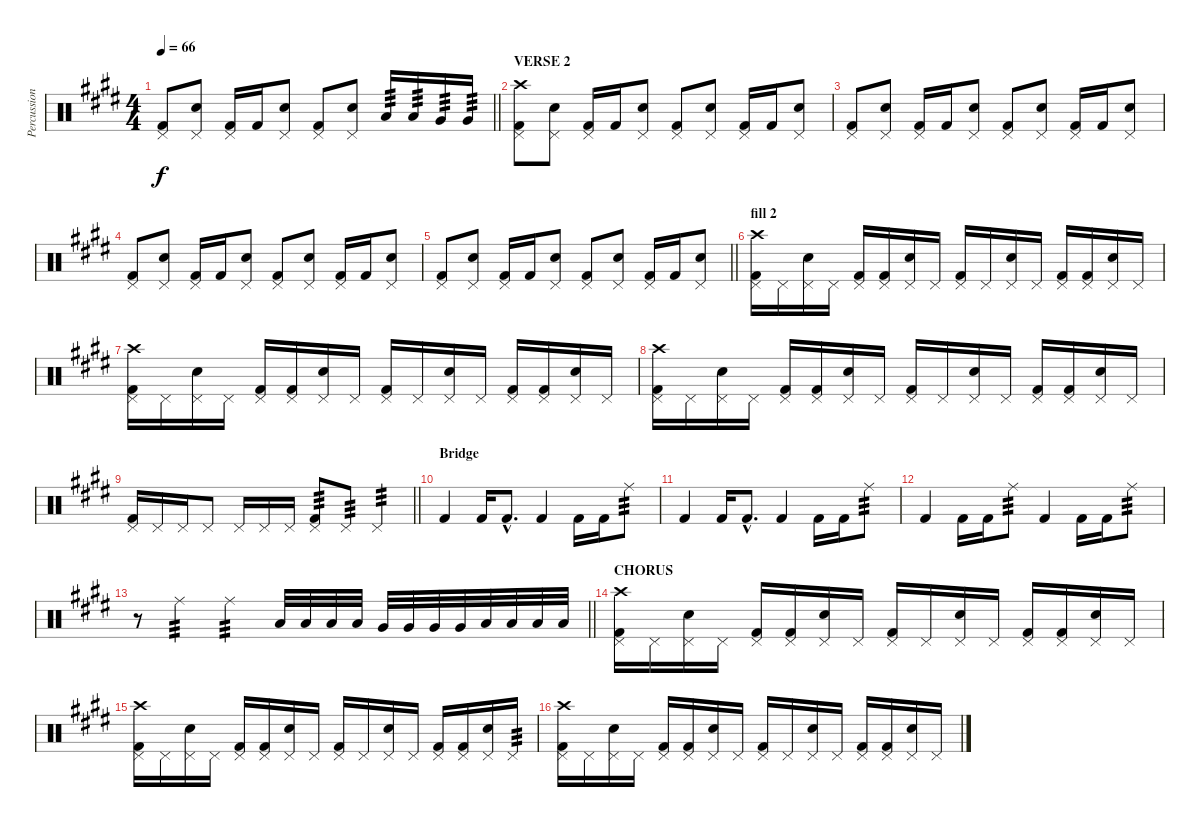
\track ("Percussion" "Percussion") {instrument percussion}
\staff {score}
\articulation defaults
\ts (4 4)
\tempo 66
\clef neutral
\barLineRight lightlight
\ks e
("Pedal Hi-Hat (hit)" "Kick (hit) 2").8{dy f} ("Pedal Hi-Hat (hit)" "Electric Snare (hit)").8 ("Pedal Hi-Hat (hit)" "Kick (hit) 2").16 "Kick (hit) 2".16 ("Pedal Hi-Hat (hit)" "Electric Snare (hit)").8 ("Pedal Hi-Hat (hit)" "Kick (hit) 2").8 ("Pedal Hi-Hat (hit)" "Electric Snare (hit)").8 "Low Tom (hit)".16{tp 3} "Low Tom (hit)".16{tp 3} "Very Low Tom (hit)".16{tp 3} "Very Low Tom (hit)".16{tp 3} |
\section ("" "VERSE 2")
("Crash high (hit)" "Pedal Hi-Hat (hit)" "Kick (hit) 2").8 ("Pedal Hi-Hat (hit)" "Electric Snare (hit)").8 ("Pedal Hi-Hat (hit)" "Kick (hit) 2").16 "Kick (hit) 2".16 ("Pedal Hi-Hat (hit)" "Electric Snare (hit)").8 ("Pedal Hi-Hat (hit)" "Kick (hit) 2").8 ("Pedal Hi-Hat (hit)" "Electric Snare (hit)").8 ("Pedal Hi-Hat (hit)" "Kick (hit) 2").16 "Kick (hit) 2".16 ("Pedal Hi-Hat (hit)" "Electric Snare (hit)").8 |
("Pedal Hi-Hat (hit)" "Kick (hit) 2").8 ("Pedal Hi-Hat (hit)" "Electric Snare (hit)").8 ("Pedal Hi-Hat (hit)" "Kick (hit) 2").16 "Kick (hit) 2".16 ("Pedal Hi-Hat (hit)" "Electric Snare (hit)").8 ("Pedal Hi-Hat (hit)" "Kick (hit) 2").8 ("Pedal Hi-Hat (hit)" "Electric Snare (hit)").8 ("Pedal Hi-Hat (hit)" "Kick (hit) 2").16 "Kick (hit) 2".16 ("Pedal Hi-Hat (hit)" "Electric Snare (hit)").8 |
("Pedal Hi-Hat (hit)" "Kick (hit) 2").8 ("Pedal Hi-Hat (hit)" "Electric Snare (hit)").8 ("Pedal Hi-Hat (hit)" "Kick (hit) 2").16 "Kick (hit) 2".16 ("Pedal Hi-Hat (hit)" "Electric Snare (hit)").8 ("Pedal Hi-Hat (hit)" "Kick (hit) 2").8 ("Pedal Hi-Hat (hit)" "Electric Snare (hit)").8 ("Pedal Hi-Hat (hit)" "Kick (hit) 2").16 "Kick (hit) 2".16 ("Pedal Hi-Hat (hit)" "Electric Snare (hit)").8 |
\barLineRight lightlight
("Pedal Hi-Hat (hit)" "Kick (hit) 2").8 ("Pedal Hi-Hat (hit)" "Electric Snare (hit)").8 ("Pedal Hi-Hat (hit)" "Kick (hit) 2").16 "Kick (hit) 2".16 ("Pedal Hi-Hat (hit)" "Electric Snare (hit)").8 ("Pedal Hi-Hat (hit)" "Kick (hit) 2").8 ("Pedal Hi-Hat (hit)" "Electric Snare (hit)").8 ("Pedal Hi-Hat (hit)" "Kick (hit) 2").16 "Kick (hit) 2".16 ("Pedal Hi-Hat (hit)" "Electric Snare (hit)").8 |
\section ("" "fill 2")
("Crash high (hit)" "Pedal Hi-Hat (hit)" "Kick (hit) 2").16 "Pedal Hi-Hat (hit)".16 ("Pedal Hi-Hat (hit)" "Electric Snare (hit)").16 "Pedal Hi-Hat (hit)".16 ("Pedal Hi-Hat (hit)" "Kick (hit) 2").16 ("Pedal Hi-Hat (hit)" "Kick (hit) 2").16 ("Pedal Hi-Hat (hit)" "Electric Snare (hit)").16 "Pedal Hi-Hat (hit)".16 ("Pedal Hi-Hat (hit)" "Kick (hit) 2").16 "Pedal Hi-Hat (hit)".16 ("Pedal Hi-Hat (hit)" "Electric Snare (hit)").16 "Pedal Hi-Hat (hit)".16 ("Pedal Hi-Hat (hit)" "Kick (hit) 2").16 ("Pedal Hi-Hat (hit)" "Kick (hit) 2").16 ("Pedal Hi-Hat (hit)" "Electric Snare (hit)").16 "Pedal Hi-Hat (hit)".16 |
("Crash high (hit)" "Pedal Hi-Hat (hit)" "Kick (hit) 2").16 "Pedal Hi-Hat (hit)".16 ("Pedal Hi-Hat (hit)" "Electric Snare (hit)").16 "Pedal Hi-Hat (hit)".16 ("Pedal Hi-Hat (hit)" "Kick (hit) 2").16 ("Pedal Hi-Hat (hit)" "Kick (hit) 2").16 ("Pedal Hi-Hat (hit)" "Electric Snare (hit)").16 "Pedal Hi-Hat (hit)".16 ("Pedal Hi-Hat (hit)" "Kick (hit) 2").16 "Pedal Hi-Hat (hit)".16 ("Pedal Hi-Hat (hit)" "Electric Snare (hit)").16 "Pedal Hi-Hat (hit)".16 ("Pedal Hi-Hat (hit)" "Kick (hit) 2").16 ("Pedal Hi-Hat (hit)" "Kick (hit) 2").16 ("Pedal Hi-Hat (hit)" "Electric Snare (hit)").16 "Pedal Hi-Hat (hit)".16 |
("Crash high (hit)" "Pedal Hi-Hat (hit)" "Kick (hit) 2").16 "Pedal Hi-Hat (hit)".16 ("Pedal Hi-Hat (hit)" "Electric Snare (hit)").16 "Pedal Hi-Hat (hit)".16 ("Pedal Hi-Hat (hit)" "Kick (hit) 2").16 ("Pedal Hi-Hat (hit)" "Kick (hit) 2").16 ("Pedal Hi-Hat (hit)" "Electric Snare (hit)").16 "Pedal Hi-Hat (hit)".16 ("Pedal Hi-Hat (hit)" "Kick (hit) 2").16 "Pedal Hi-Hat (hit)".16 ("Pedal Hi-Hat (hit)" "Electric Snare (hit)").16 "Pedal Hi-Hat (hit)".16 ("Pedal Hi-Hat (hit)" "Kick (hit) 2").16 ("Pedal Hi-Hat (hit)" "Kick (hit) 2").16 ("Pedal Hi-Hat (hit)" "Electric Snare (hit)").16 "Pedal Hi-Hat (hit)".16 |
\barLineRight lightlight
("Pedal Hi-Hat (hit)" "Kick (hit) 2").16 "Pedal Hi-Hat (hit)".16 "Pedal Hi-Hat (hit)".16 "Pedal Hi-Hat (hit)".8 "Pedal Hi-Hat (hit)".16 "Pedal Hi-Hat (hit)".16 "Pedal Hi-Hat (hit)".16 ("Pedal Hi-Hat (hit)" "Kick (hit) 2").8{tp 3} "Pedal Hi-Hat (hit)".8{tp 3} "Pedal Hi-Hat (hit)".4{tp 3} |
\section ("" "Bridge")
"Kick (hit) 2".4 "Kick (hit) 2".16 "Kick (hit) 2"{hac}.8{d} "Kick (hit) 2".4 "Kick (hit) 2".16 "Kick (hit) 2".16 "Ride (middle)".8{tp 3} |
"Kick (hit) 2".4 "Kick (hit) 2".16 "Kick (hit) 2"{hac}.8{d} "Kick (hit) 2".4 "Kick (hit) 2".16 "Kick (hit) 2".16 "Ride (middle)".8{tp 3} |
"Kick (hit) 2".4 "Kick (hit) 2".16 "Kick (hit) 2".16 "Ride (middle)".8{tp 3} "Kick (hit) 2".4 "Kick (hit) 2".16 "Kick (hit) 2".16 "Ride (middle)".8{tp 3} |
\barLineRight lightlight
r.8 "Ride (middle)".4{tp 3} "Ride (middle)".4{tp 3} "Low Tom (hit)".32 "Low Tom (hit)".32 "Low Tom (hit)".32 "Low Tom (hit)".32 "Very Low Tom (hit)".32 "Very Low Tom (hit)".32 "Very Low Tom (hit)".32 "Very Low Tom (hit)".32 "Low Floor Tom (hit)".32 "Low Floor Tom (hit)".32 "Low Floor Tom (hit)".32 "Low Floor Tom (hit)".32 |
\section ("" "CHORUS")
("Crash high (hit)" "Pedal Hi-Hat (hit)" "Kick (hit) 2").16 "Pedal Hi-Hat (hit)".16 ("Pedal Hi-Hat (hit)" "Electric Snare (hit)").16 "Pedal Hi-Hat (hit)".16 ("Pedal Hi-Hat (hit)" "Kick (hit) 2").16 ("Pedal Hi-Hat (hit)" "Kick (hit) 2").16 ("Pedal Hi-Hat (hit)" "Electric Snare (hit)").16 "Pedal Hi-Hat (hit)".16 ("Pedal Hi-Hat (hit)" "Kick (hit) 2").16 "Pedal Hi-Hat (hit)".16 ("Pedal Hi-Hat (hit)" "Electric Snare (hit)").16 "Pedal Hi-Hat (hit)".16 ("Pedal Hi-Hat (hit)" "Kick (hit) 2").16 ("Pedal Hi-Hat (hit)" "Kick (hit) 2").16 ("Pedal Hi-Hat (hit)" "Electric Snare (hit)").16 "Pedal Hi-Hat (hit)".16 |
("Crash high (hit)" "Pedal Hi-Hat (hit)" "Kick (hit) 2").16 "Pedal Hi-Hat (hit)".16 ("Pedal Hi-Hat (hit)" "Electric Snare (hit)").16 "Pedal Hi-Hat (hit)".16 ("Pedal Hi-Hat (hit)" "Kick (hit) 2").16 ("Pedal Hi-Hat (hit)" "Kick (hit) 2").16 ("Pedal Hi-Hat (hit)" "Electric Snare (hit)").16 "Pedal Hi-Hat (hit)".16 ("Pedal Hi-Hat (hit)" "Kick (hit) 2").16 "Pedal Hi-Hat (hit)".16 ("Pedal Hi-Hat (hit)" "Electric Snare (hit)").16 "Pedal Hi-Hat (hit)".16 ("Pedal Hi-Hat (hit)" "Kick (hit) 2").16 ("Pedal Hi-Hat (hit)" "Kick (hit) 2").16 ("Pedal Hi-Hat (hit)" "Electric Snare (hit)").16 "Pedal Hi-Hat (hit)".16{tp 3} |
("Crash high (hit)" "Pedal Hi-Hat (hit)" "Kick (hit) 2").16 "Pedal Hi-Hat (hit)".16 ("Pedal Hi-Hat (hit)" "Electric Snare (hit)").16 "Pedal Hi-Hat (hit)".16 ("Pedal Hi-Hat (hit)" "Kick (hit) 2").16 ("Pedal Hi-Hat (hit)" "Kick (hit) 2").16 ("Pedal Hi-Hat (hit)" "Electric Snare (hit)").16 "Pedal Hi-Hat (hit)".16 ("Pedal Hi-Hat (hit)" "Kick (hit) 2").16 "Pedal Hi-Hat (hit)".16 ("Pedal Hi-Hat (hit)" "Electric Snare (hit)").16 "Pedal Hi-Hat (hit)".16 ("Pedal Hi-Hat (hit)" "Kick (hit) 2").16 ("Pedal Hi-Hat (hit)" "Kick (hit) 2").16 ("Pedal Hi-Hat (hit)" "Electric Snare (hit)").16 "Pedal Hi-Hat (hit)".16
